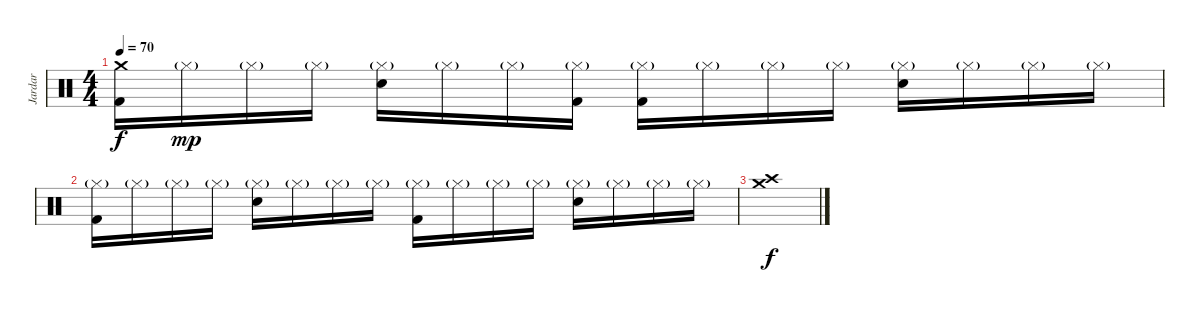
\track ("Jardar" "Jardar") {instrument percussion}
\staff {score}
\articulation defaults
\ts (4 4)
\tempo 70
\clef neutral
\ks c
("Crash medium (hit)" "Kick (hit) 2").16{dy f} "Hi-Hat (closed)"{g}.16{dy mp} "Hi-Hat (closed)"{g}.16 "Hi-Hat (closed)"{g}.16 ("Hi-Hat (closed)"{g} "Electric Snare (hit)").16 "Hi-Hat (closed)"{g}.16 "Hi-Hat (closed)"{g}.16 ("Hi-Hat (closed)"{g} "Kick (hit) 2").16 ("Hi-Hat (closed)"{g} "Kick (hit) 2").16 "Hi-Hat (closed)"{g}.16 "Hi-Hat (closed)"{g}.16 "Hi-Hat (closed)"{g}.16 ("Hi-Hat (closed)"{g} "Electric Snare (hit)").16 "Hi-Hat (closed)"{g}.16 "Hi-Hat (closed)"{g}.16 "Hi-Hat (closed)"{g}.16 |
("Hi-Hat (closed)"{g} "Kick (hit) 2").16 "Hi-Hat (closed)"{g}.16 "Hi-Hat (closed)"{g}.16 "Hi-Hat (closed)"{g}.16 ("Hi-Hat (closed)"{g} "Electric Snare (hit)").16 "Hi-Hat (closed)"{g}.16 "Hi-Hat (closed)"{g}.16 "Hi-Hat (closed)"{g}.16 ("Hi-Hat (closed)"{g} "Kick (hit) 2").16 "Hi-Hat (closed)"{g}.16 "Hi-Hat (closed)"{g}.16 "Hi-Hat (closed)"{g}.16 ("Hi-Hat (closed)"{g} "Electric Snare (hit)").16 "Hi-Hat (closed)"{g}.16 "Hi-Hat (closed)"{g}.16 "Hi-Hat (closed)"{g}.16 |
("Crash medium (hit)" "Crash high (hit)").1{dy f}
